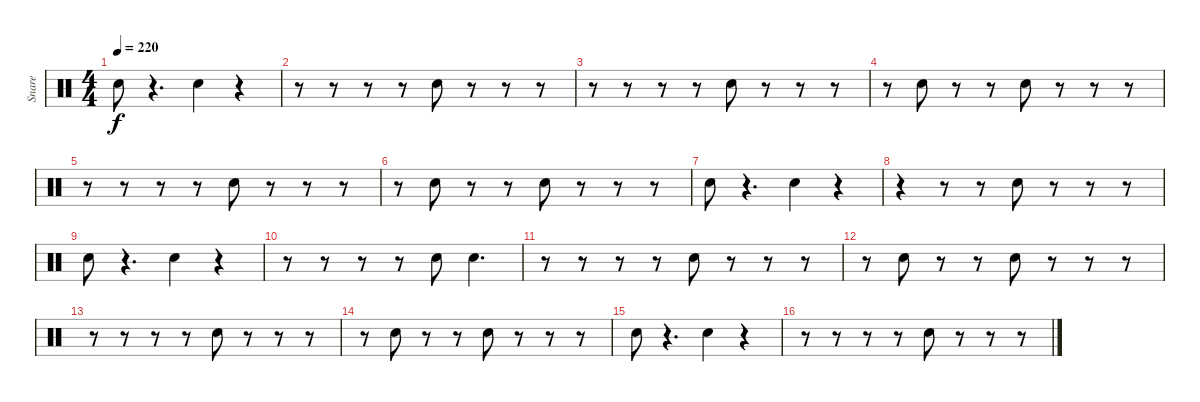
\track ("Snare" "Snare") {instrument percussion}
\staff {score}
\articulation defaults
\ts (4 4)
\tempo 220
\clef neutral
\ks c "Electric Snare (hit)".8{dy f}
r.4{d} "Electric Snare (hit)".4 r.4 |
r.8 r.8 r.8 r.8 "Electric Snare (hit)".8 r.8 r.8 r.8 |
r.8 r.8 r.8 r.8 "Electric Snare (hit)".8 r.8 r.8 r.8 |
r.8 "Electric Snare (hit)".8 r.8 r.8 "Electric Snare (hit)".8 r.8 r.8 r.8 |
r.8 r.8 r.8 r.8 "Electric Snare (hit)".8 r.8 r.8 r.8 |
r.8 "Electric Snare (hit)".8 r.8 r.8 "Electric Snare (hit)".8 r.8 r.8 r.8 |
"Electric Snare (hit)".8 r.4{d} "Electric Snare (hit)".4 r.4 |
r.4 r.8 r.8 "Electric Snare (hit)".8 r.8 r.8 r.8 |
"Electric Snare (hit)".8 r.4{d} "Electric Snare (hit)".4 r.4 |
r.8 r.8 r.8 r.8 "Electric Snare (hit)".8 "Electric Snare (hit)".4{d} |
r.8 r.8 r.8 r.8 "Electric Snare (hit)".8 r.8 r.8 r.8 |
r.8 "Electric Snare (hit)".8 r.8 r.8 "Electric Snare (hit)".8 r.8 r.8 r.8 |
r.8 r.8 r.8 r.8 "Electric Snare (hit)".8 r.8 r.8 r.8 |
r.8 "Electric Snare (hit)".8 r.8 r.8 "Electric Snare (hit)".8 r.8 r.8 r.8 |
"Electric Snare (hit)".8 r.4{d} "Electric Snare (hit)".4 r.4 |
r.8 r.8 r.8 r.8 "Electric Snare (hit)".8 r.8 r.8 r.8
